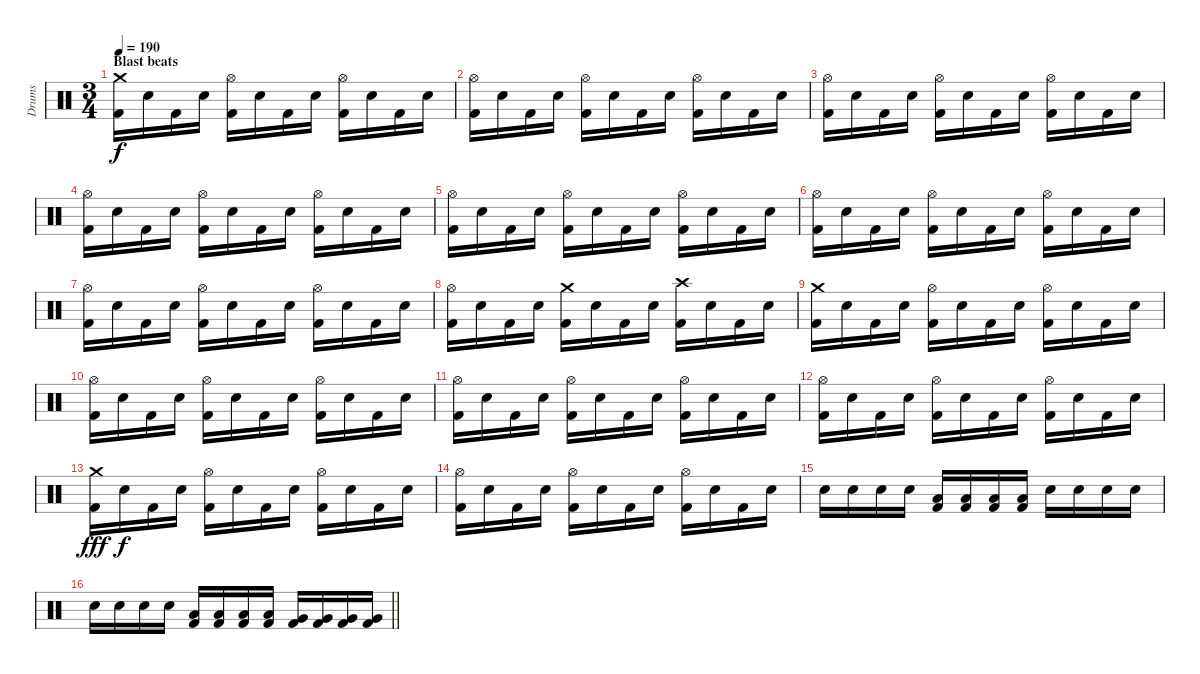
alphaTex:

\track ("Drums" "Drums") {instrument percussion}
\staff {score}
\articulation defaults
\ts (3 4)
\section ("" "Blast beats")
\tempo 190
\clef neutral
\ks c
("Crash medium (hit)" "Kick (hit) 2").16{dy f} "Electric Snare (hit)".16 "Kick (hit) 2".16 "Electric Snare (hit)".16 ("Hi-Hat (open)" "Kick (hit) 2").16 "Electric Snare (hit)".16 "Kick (hit) 2".16 "Electric Snare (hit)".16 ("Hi-Hat (open)" "Kick (hit) 2").16 "Electric Snare (hit)".16 "Kick (hit) 2".16 "Electric Snare (hit)".16 |
("Hi-Hat (open)" "Kick (hit) 2").16 "Electric Snare (hit)".16 "Kick (hit) 2".16 "Electric Snare (hit)".16 ("Hi-Hat (open)" "Kick (hit) 2").16 "Electric Snare (hit)".16 "Kick (hit) 2".16 "Electric Snare (hit)".16 ("Hi-Hat (open)" "Kick (hit) 2").16 "Electric Snare (hit)".16 "Kick (hit) 2".16 "Electric Snare (hit)".16 |
("Hi-Hat (open)" "Kick (hit) 2").16 "Electric Snare (hit)".16 "Kick (hit) 2".16 "Electric Snare (hit)".16 ("Hi-Hat (open)" "Kick (hit) 2").16 "Electric Snare (hit)".16 "Kick (hit) 2".16 "Electric Snare (hit)".16 ("Hi-Hat (open)" "Kick (hit) 2").16 "Electric Snare (hit)".16 "Kick (hit) 2".16 "Electric Snare (hit)".16 |
("Hi-Hat (open)" "Kick (hit) 2").16 "Electric Snare (hit)".16 "Kick (hit) 2".16 "Electric Snare (hit)".16 ("Hi-Hat (open)" "Kick (hit) 2").16 "Electric Snare (hit)".16 "Kick (hit) 2".16 "Electric Snare (hit)".16 ("Hi-Hat (open)" "Kick (hit) 2").16 "Electric Snare (hit)".16 "Kick (hit) 2".16 "Electric Snare (hit)".16 |
("Hi-Hat (open)" "Kick (hit) 2").16 "Electric Snare (hit)".16 "Kick (hit) 2".16 "Electric Snare (hit)".16 ("Hi-Hat (open)" "Kick (hit) 2").16 "Electric Snare (hit)".16 "Kick (hit) 2".16 "Electric Snare (hit)".16 ("Hi-Hat (open)" "Kick (hit) 2").16 "Electric Snare (hit)".16 "Kick (hit) 2".16 "Electric Snare (hit)".16 |
("Hi-Hat (open)" "Kick (hit) 2").16 "Electric Snare (hit)".16 "Kick (hit) 2".16 "Electric Snare (hit)".16 ("Hi-Hat (open)" "Kick (hit) 2").16 "Electric Snare (hit)".16 "Kick (hit) 2".16 "Electric Snare (hit)".16 ("Hi-Hat (open)" "Kick (hit) 2").16 "Electric Snare (hit)".16 "Kick (hit) 2".16 "Electric Snare (hit)".16 |
("Hi-Hat (open)" "Kick (hit) 2").16 "Electric Snare (hit)".16 "Kick (hit) 2".16 "Electric Snare (hit)".16 ("Hi-Hat (open)" "Kick (hit) 2").16 "Electric Snare (hit)".16 "Kick (hit) 2".16 "Electric Snare (hit)".16 ("Hi-Hat (open)" "Kick (hit) 2").16 "Electric Snare (hit)".16 "Kick (hit) 2".16 "Electric Snare (hit)".16 |
("Hi-Hat (open)" "Kick (hit) 2").16 "Electric Snare (hit)".16 "Kick (hit) 2".16 "Electric Snare (hit)".16 ("Crash medium (hit)" "Kick (hit) 2").16 "Electric Snare (hit)".16 "Kick (hit) 2".16 "Electric Snare (hit)".16 ("Crash high (hit)" "Kick (hit) 2").16 "Electric Snare (hit)".16 "Kick (hit) 2".16 "Electric Snare (hit)".16 |
("Crash medium (hit)" "Kick (hit) 2").16 "Electric Snare (hit)".16 "Kick (hit) 2".16 "Electric Snare (hit)".16 ("Hi-Hat (open)" "Kick (hit) 2").16 "Electric Snare (hit)".16 "Kick (hit) 2".16 "Electric Snare (hit)".16 ("Hi-Hat (open)" "Kick (hit) 2").16 "Electric Snare (hit)".16 "Kick (hit) 2".16 "Electric Snare (hit)".16 |
("Hi-Hat (open)" "Kick (hit) 2").16 "Electric Snare (hit)".16 "Kick (hit) 2".16 "Electric Snare (hit)".16 ("Hi-Hat (open)" "Kick (hit) 2").16 "Electric Snare (hit)".16 "Kick (hit) 2".16 "Electric Snare (hit)".16 ("Hi-Hat (open)" "Kick (hit) 2").16 "Electric Snare (hit)".16 "Kick (hit) 2".16 "Electric Snare (hit)".16 |
("Hi-Hat (open)" "Kick (hit) 2").16 "Electric Snare (hit)".16 "Kick (hit) 2".16 "Electric Snare (hit)".16 ("Hi-Hat (open)" "Kick (hit) 2").16 "Electric Snare (hit)".16 "Kick (hit) 2".16 "Electric Snare (hit)".16 ("Hi-Hat (open)" "Kick (hit) 2").16 "Electric Snare (hit)".16 "Kick (hit) 2".16 "Electric Snare (hit)".16 |
("Hi-Hat (open)" "Kick (hit) 2").16 "Electric Snare (hit)".16 "Kick (hit) 2".16 "Electric Snare (hit)".16 ("Hi-Hat (open)" "Kick (hit) 2").16 "Electric Snare (hit)".16 "Kick (hit) 2".16 "Electric Snare (hit)".16 ("Hi-Hat (open)" "Kick (hit) 2").16 "Electric Snare (hit)".16 "Kick (hit) 2".16 "Electric Snare (hit)".16 |
("Crash medium (hit)" "Kick (hit) 2").16{dy fff} "Electric Snare (hit)".16{dy f} "Kick (hit) 2".16 "Electric Snare (hit)".16 ("Hi-Hat (open)" "Kick (hit) 2").16 "Electric Snare (hit)".16 "Kick (hit) 2".16 "Electric Snare (hit)".16 ("Hi-Hat (open)" "Kick (hit) 2").16 "Electric Snare (hit)".16 "Kick (hit) 2".16 "Electric Snare (hit)".16 |
("Hi-Hat (open)" "Kick (hit) 2").16 "Electric Snare (hit)".16 "Kick (hit) 2".16 "Electric Snare (hit)".16 ("Hi-Hat (open)" "Kick (hit) 2").16 "Electric Snare (hit)".16 "Kick (hit) 2".16 "Electric Snare (hit)".16 ("Hi-Hat (open)" "Kick (hit) 2").16 "Electric Snare (hit)".16 "Kick (hit) 2".16 "Electric Snare (hit)".16 |
"Electric Snare (hit)".16 "Electric Snare (hit)".16 "Electric Snare (hit)".16 "Electric Snare (hit)".16 ("Low Tom (hit)" "Kick (hit) 2").16 ("Low Tom (hit)" "Kick (hit) 2").16 ("Low Tom (hit)" "Kick (hit) 2").16 ("Low Tom (hit)" "Kick (hit) 2").16 "Electric Snare (hit)".16 "Electric Snare (hit)".16 "Electric Snare (hit)".16 "Electric Snare (hit)".16 |
\barLineRight lightlight "Electric Snare (hit)".16 "Electric Snare (hit)".16 "Electric Snare (hit)".16 "Electric Snare (hit)".16
("Low Tom (hit)" "Kick (hit) 2").16 ("Low Tom (hit)" "Kick (hit) 2").16 ("Low Tom (hit)" "Kick (hit) 2").16 ("Low Tom (hit)" "Kick (hit) 2").16 ("Very Low Tom (hit)" "Kick (hit) 2").16 ("Very Low Tom (hit)" "Kick (hit) 2").16 ("Very Low Tom (hit)" "Kick (hit) 2").16 ("Very Low Tom (hit)" "Kick (hit) 2").16
